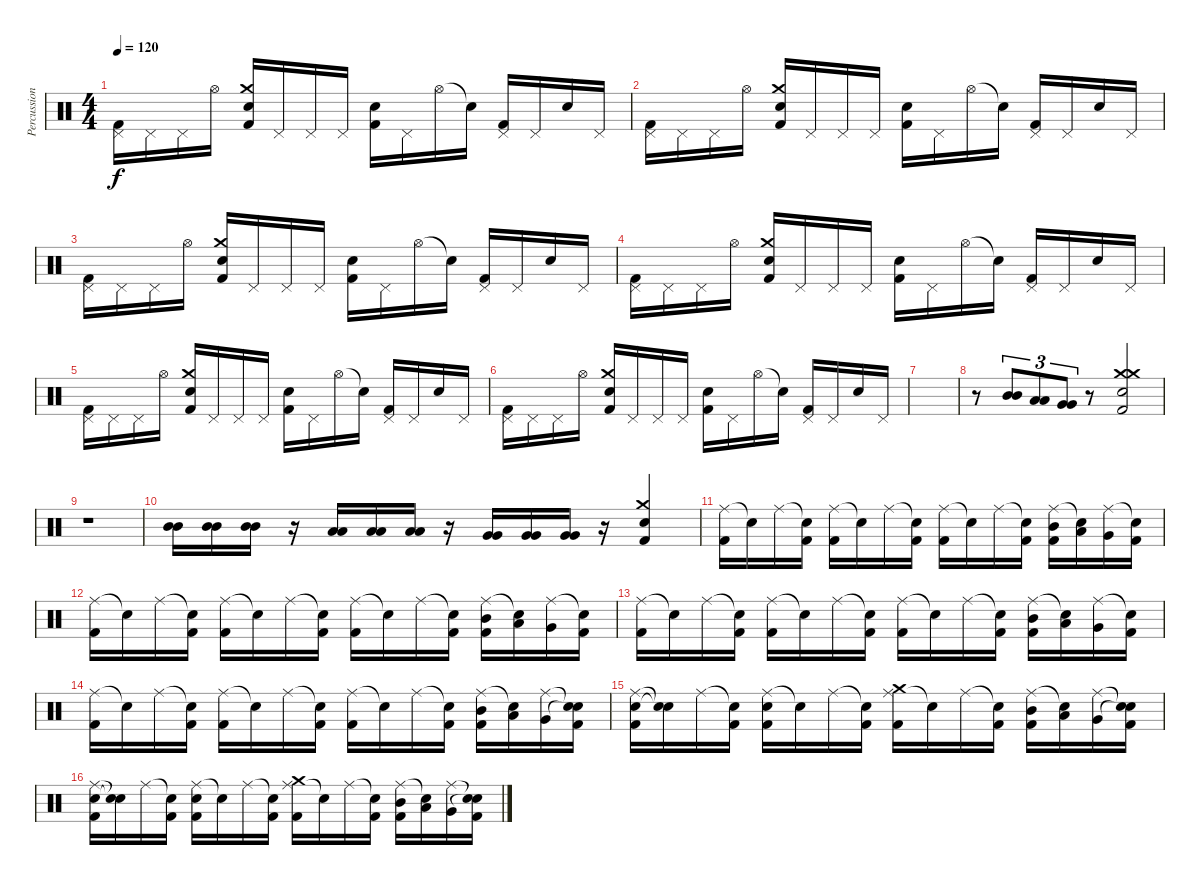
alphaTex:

\track ("Percussion" "Percussion") {instrument percussion}
\staff {score}
\articulation defaults
\ts (4 4)
\tempo 120
\clef neutral
\ks c
("Pedal Hi-Hat (hit)" "Kick (hit) 2").16{dy f} "Pedal Hi-Hat (hit)".16 "Pedal Hi-Hat (hit)".16 "Hi-Hat (open)".16 ("Crash medium (hit)" "Snare (hit) 2" "Kick (hit) 2").16 "Pedal Hi-Hat (hit)".16 "Pedal Hi-Hat (hit)".16 "Pedal Hi-Hat (hit)".16 ("Snare (hit) 2" "Kick (hit) 2").16 "Pedal Hi-Hat (hit)".16 "Hi-Hat (open)".16 "Snare (hit)"{t}.16 ("Pedal Hi-Hat (hit)" "Kick (hit) 2").16 "Pedal Hi-Hat (hit)".16 "Snare (hit) 2".16 "Pedal Hi-Hat (hit)".16 |
("Pedal Hi-Hat (hit)" "Kick (hit) 2").16 "Pedal Hi-Hat (hit)".16 "Pedal Hi-Hat (hit)".16 "Hi-Hat (open)".16 ("Crash medium (hit)" "Snare (hit) 2" "Kick (hit) 2").16 "Pedal Hi-Hat (hit)".16 "Pedal Hi-Hat (hit)".16 "Pedal Hi-Hat (hit)".16 ("Snare (hit) 2" "Kick (hit) 2").16 "Pedal Hi-Hat (hit)".16 "Hi-Hat (open)".16 "Snare (hit)"{t}.16 ("Pedal Hi-Hat (hit)" "Kick (hit) 2").16 "Pedal Hi-Hat (hit)".16 "Snare (hit) 2".16 "Pedal Hi-Hat (hit)".16 |
("Pedal Hi-Hat (hit)" "Kick (hit) 2").16 "Pedal Hi-Hat (hit)".16 "Pedal Hi-Hat (hit)".16 "Hi-Hat (open)".16 ("Crash medium (hit)" "Snare (hit) 2" "Kick (hit) 2").16 "Pedal Hi-Hat (hit)".16 "Pedal Hi-Hat (hit)".16 "Pedal Hi-Hat (hit)".16 ("Snare (hit) 2" "Kick (hit) 2").16 "Pedal Hi-Hat (hit)".16 "Hi-Hat (open)".16 "Snare (hit)"{t}.16 ("Pedal Hi-Hat (hit)" "Kick (hit) 2").16 "Pedal Hi-Hat (hit)".16 "Snare (hit) 2".16 "Pedal Hi-Hat (hit)".16 |
("Pedal Hi-Hat (hit)" "Kick (hit) 2").16 "Pedal Hi-Hat (hit)".16 "Pedal Hi-Hat (hit)".16 "Hi-Hat (open)".16 ("Crash medium (hit)" "Snare (hit) 2" "Kick (hit) 2").16 "Pedal Hi-Hat (hit)".16 "Pedal Hi-Hat (hit)".16 "Pedal Hi-Hat (hit)".16 ("Snare (hit) 2" "Kick (hit) 2").16 "Pedal Hi-Hat (hit)".16 "Hi-Hat (open)".16 "Snare (hit)"{t}.16 ("Pedal Hi-Hat (hit)" "Kick (hit) 2").16 "Pedal Hi-Hat (hit)".16 "Snare (hit) 2".16 "Pedal Hi-Hat (hit)".16 |
("Pedal Hi-Hat (hit)" "Kick (hit) 2").16 "Pedal Hi-Hat (hit)".16 "Pedal Hi-Hat (hit)".16 "Hi-Hat (open)".16 ("Crash medium (hit)" "Snare (hit) 2" "Kick (hit) 2").16 "Pedal Hi-Hat (hit)".16 "Pedal Hi-Hat (hit)".16 "Pedal Hi-Hat (hit)".16 ("Snare (hit) 2" "Kick (hit) 2").16 "Pedal Hi-Hat (hit)".16 "Hi-Hat (open)".16 "Snare (hit)"{t}.16 ("Pedal Hi-Hat (hit)" "Kick (hit) 2").16 "Pedal Hi-Hat (hit)".16 "Snare (hit) 2".16 "Pedal Hi-Hat (hit)".16 |
("Pedal Hi-Hat (hit)" "Kick (hit) 2").16 "Pedal Hi-Hat (hit)".16 "Pedal Hi-Hat (hit)".16 "Hi-Hat (open)".16 ("Crash medium (hit)" "Snare (hit) 2" "Kick (hit) 2").16 "Pedal Hi-Hat (hit)".16 "Pedal Hi-Hat (hit)".16 "Pedal Hi-Hat (hit)".16 ("Snare (hit) 2" "Kick (hit) 2").16 "Pedal Hi-Hat (hit)".16 "Hi-Hat (open)".16 "Snare (hit)"{t}.16 ("Pedal Hi-Hat (hit)" "Kick (hit) 2").16 "Pedal Hi-Hat (hit)".16 "Snare (hit) 2".16 "Pedal Hi-Hat (hit)".16 |
|
r.8{volume 16} ("Mid Tom (hit)" "Mid Tom (hit)").8{tu (3 2)} ("Low Tom (hit)" "Low Tom (hit)").8{tu (3 2)} ("Very Low Tom (hit)" "Very Low Tom (hit)").8{tu (3 2)} r.8 ("Crash medium (hit)" "Crash medium (hit)" "Snare (hit) 2" "Kick (hit) 2").2 |
r.1 |
("Mid Tom (hit)" "Mid Tom (hit)").16 ("Mid Tom (hit)" "Mid Tom (hit)").16 ("Mid Tom (hit)" "Mid Tom (hit)").16 r.16 ("Low Tom (hit)" "Low Tom (hit)").16 ("Low Tom (hit)" "Low Tom (hit)").16 ("Low Tom (hit)" "Low Tom (hit)").16 r.16 ("Very Low Tom (hit)" "Very Low Tom (hit)").16 ("Very Low Tom (hit)" "Very Low Tom (hit)").16 ("Very Low Tom (hit)" "Very Low Tom (hit)").16 r.16 ("Crash medium (hit)" "Snare (hit) 2" "Kick (hit) 2").4 |
("Ride (middle)" "Kick (hit) 2").16 "Snare (hit)"{t}.16 "Ride (middle)".16 ("Snare (hit)"{t} "Kick (hit) 2").16 ("Ride (middle)" "Kick (hit) 2").16 "Snare (hit)"{t}.16 "Ride (middle)".16 ("Snare (hit)"{t} "Kick (hit) 2").16 ("Ride (middle)" "Kick (hit) 2").16 "Snare (hit)"{t}.16 "Ride (middle)".16 ("Snare (hit)"{t} "Kick (hit) 2").16 ("Ride (middle)" "Mid Tom (hit)" "Kick (hit) 2").16 ("Snare (hit)"{t} "Low Tom (hit)").16 ("Ride (middle)" "Very Low Tom (hit)").16 ("Snare (hit)"{t} "Kick (hit) 2").16 |
("Ride (middle)" "Kick (hit) 2").16 "Snare (hit)"{t}.16 "Ride (middle)".16 ("Snare (hit)"{t} "Kick (hit) 2").16 ("Ride (middle)" "Kick (hit) 2").16 "Snare (hit)"{t}.16 "Ride (middle)".16 ("Snare (hit)"{t} "Kick (hit) 2").16 ("Ride (middle)" "Kick (hit) 2").16 "Snare (hit)"{t}.16 "Ride (middle)".16 ("Snare (hit)"{t} "Kick (hit) 2").16 ("Ride (middle)" "Mid Tom (hit)" "Kick (hit) 2").16 ("Snare (hit)"{t} "Low Tom (hit)").16 ("Ride (middle)" "Very Low Tom (hit)").16 ("Snare (hit)"{t} "Kick (hit) 2").16 |
("Ride (middle)" "Kick (hit) 2").16 "Snare (hit)"{t}.16 "Ride (middle)".16 ("Snare (hit)"{t} "Kick (hit) 2").16 ("Ride (middle)" "Kick (hit) 2").16 "Snare (hit)"{t}.16 "Ride (middle)".16 ("Snare (hit)"{t} "Kick (hit) 2").16 ("Ride (middle)" "Kick (hit) 2").16 "Snare (hit)"{t}.16 "Ride (middle)".16 ("Snare (hit)"{t} "Kick (hit) 2").16 ("Ride (middle)" "Mid Tom (hit)" "Kick (hit) 2").16 ("Snare (hit)"{t} "Low Tom (hit)").16 ("Ride (middle)" "Very Low Tom (hit)").16 ("Snare (hit)"{t} "Kick (hit) 2").16 |
("Ride (middle)" "Kick (hit) 2").16 "Snare (hit)"{t}.16 "Ride (middle)".16 ("Snare (hit)"{t} "Kick (hit) 2").16 ("Ride (middle)" "Kick (hit) 2").16 "Snare (hit)"{t}.16 "Ride (middle)".16 ("Snare (hit)"{t} "Kick (hit) 2").16 ("Ride (middle)" "Kick (hit) 2").16 "Snare (hit)"{t}.16 "Ride (middle)".16 ("Snare (hit)"{t} "Kick (hit) 2").16 ("Ride (middle)" "Mid Tom (hit)" "Kick (hit) 2").16 ("Snare (hit)"{t} "Low Tom (hit)").16 ("Ride (middle)" "Very Low Tom (hit)").16 ("Snare (hit)"{t} "Snare (hit)"{t} "Kick (hit) 2").16 |
("Ride (middle)" "Snare (hit) 2" "Kick (hit) 2").16 ("Snare (hit)"{t} "Snare (hit)"{t}).16 "Ride (middle)".16 ("Snare (hit)"{t} "Kick (hit) 2").16 ("Ride (middle)" "Snare (hit) 2" "Kick (hit) 2").16 "Snare (hit)"{t}.16 "Ride (middle)".16 ("Snare (hit)"{t} "Kick (hit) 2").16 ("Ride (middle)" "Crash medium (hit)" "Kick (hit) 2").16 "Snare (hit)"{t}.16 "Ride (middle)".16 ("Snare (hit)"{t} "Kick (hit) 2").16 ("Ride (middle)" "Mid Tom (hit)" "Kick (hit) 2").16 ("Snare (hit)"{t} "Low Tom (hit)").16 ("Ride (middle)" "Very Low Tom (hit)").16 ("Snare (hit)"{t} "Snare (hit)"{t} "Kick (hit) 2").16 |
("Ride (middle)" "Snare (hit) 2" "Kick (hit) 2").16 ("Snare (hit)"{t} "Snare (hit)"{t}).16 "Ride (middle)".16 ("Snare (hit)"{t} "Kick (hit) 2").16 ("Ride (middle)" "Snare (hit) 2" "Kick (hit) 2").16 "Snare (hit)"{t}.16 "Ride (middle)".16 ("Snare (hit)"{t} "Kick (hit) 2").16 ("Ride (middle)" "Crash medium (hit)" "Kick (hit) 2").16 "Snare (hit)"{t}.16 "Ride (middle)".16 ("Snare (hit)"{t} "Kick (hit) 2").16 ("Ride (middle)" "Mid Tom (hit)" "Kick (hit) 2").16 ("Snare (hit)"{t} "Low Tom (hit)").16 ("Ride (middle)" "Very Low Tom (hit)").16 ("Snare (hit)"{t} "Snare (hit)"{t} "Kick (hit) 2").16
